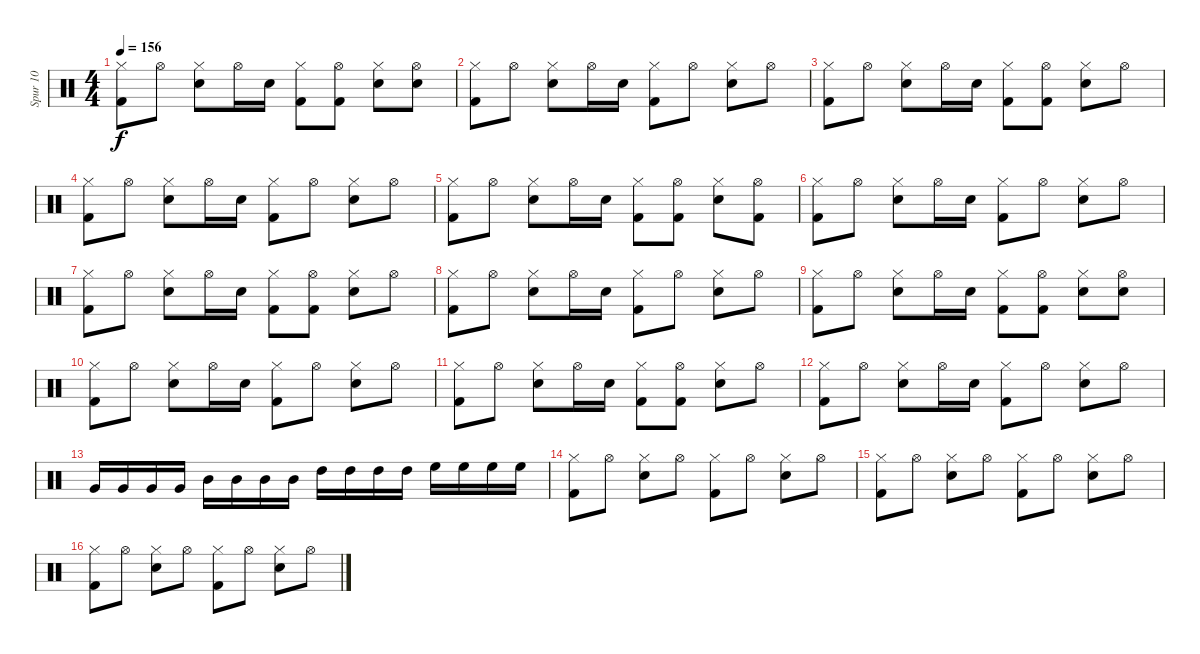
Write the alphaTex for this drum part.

\track ("Spur 10" "Spur 10") {instrument percussion}
\staff {score}
\articulation defaults
\ts (4 4)
\tempo 156
\clef neutral
\ks c
("Hi-Hat (closed)" "Kick (hit) 2").8{dy f} "Hi-Hat (open)".8 ("Hi-Hat (closed)" "Electric Snare (hit)").8 "Hi-Hat (open)".16 "Electric Snare (hit)".16 ("Hi-Hat (closed)" "Kick (hit) 2").8 ("Hi-Hat (open)" "Kick (hit) 2").8 ("Hi-Hat (closed)" "Electric Snare (hit)").8 ("Hi-Hat (open)" "Electric Snare (hit)").8 |
("Hi-Hat (closed)" "Kick (hit) 2").8 "Hi-Hat (open)".8 ("Hi-Hat (closed)" "Electric Snare (hit)").8 "Hi-Hat (open)".16 "Electric Snare (hit)".16 ("Hi-Hat (closed)" "Kick (hit) 2").8 "Hi-Hat (open)".8 ("Hi-Hat (closed)" "Electric Snare (hit)").8 "Hi-Hat (open)".8 |
("Hi-Hat (closed)" "Kick (hit) 2").8 "Hi-Hat (open)".8 ("Hi-Hat (closed)" "Electric Snare (hit)").8 "Hi-Hat (open)".16 "Electric Snare (hit)".16 ("Hi-Hat (closed)" "Kick (hit) 2").8 ("Hi-Hat (open)" "Kick (hit) 2").8 ("Hi-Hat (closed)" "Electric Snare (hit)").8 "Hi-Hat (open)".8 |
("Hi-Hat (closed)" "Kick (hit) 2").8 "Hi-Hat (open)".8 ("Hi-Hat (closed)" "Electric Snare (hit)").8 "Hi-Hat (open)".16 "Electric Snare (hit)".16 ("Hi-Hat (closed)" "Kick (hit) 2").8 "Hi-Hat (open)".8 ("Hi-Hat (closed)" "Electric Snare (hit)").8 "Hi-Hat (open)".8 |
("Hi-Hat (closed)" "Kick (hit) 2").8 "Hi-Hat (open)".8 ("Hi-Hat (closed)" "Electric Snare (hit)").8 "Hi-Hat (open)".16 "Electric Snare (hit)".16 ("Hi-Hat (closed)" "Kick (hit) 2").8 ("Hi-Hat (open)" "Kick (hit) 2").8 ("Hi-Hat (closed)" "Electric Snare (hit)").8 ("Hi-Hat (open)" "Kick (hit) 2").8 |
("Hi-Hat (closed)" "Kick (hit) 2").8 "Hi-Hat (open)".8 ("Hi-Hat (closed)" "Electric Snare (hit)").8 "Hi-Hat (open)".16 "Electric Snare (hit)".16 ("Hi-Hat (closed)" "Kick (hit) 2").8 "Hi-Hat (open)".8 ("Hi-Hat (closed)" "Electric Snare (hit)").8 "Hi-Hat (open)".8 |
("Hi-Hat (closed)" "Kick (hit) 2").8 "Hi-Hat (open)".8 ("Hi-Hat (closed)" "Electric Snare (hit)").8 "Hi-Hat (open)".16 "Electric Snare (hit)".16 ("Hi-Hat (closed)" "Kick (hit) 2").8 ("Hi-Hat (open)" "Kick (hit) 2").8 ("Hi-Hat (closed)" "Electric Snare (hit)").8 "Hi-Hat (open)".8 |
("Hi-Hat (closed)" "Kick (hit) 2").8 "Hi-Hat (open)".8 ("Hi-Hat (closed)" "Electric Snare (hit)").8 "Hi-Hat (open)".16 "Electric Snare (hit)".16 ("Hi-Hat (closed)" "Kick (hit) 2").8 "Hi-Hat (open)".8 ("Hi-Hat (closed)" "Electric Snare (hit)").8 "Hi-Hat (open)".8 |
("Hi-Hat (closed)" "Kick (hit) 2").8 "Hi-Hat (open)".8 ("Hi-Hat (closed)" "Electric Snare (hit)").8 "Hi-Hat (open)".16 "Electric Snare (hit)".16 ("Hi-Hat (closed)" "Kick (hit) 2").8 ("Hi-Hat (open)" "Kick (hit) 2").8 ("Hi-Hat (closed)" "Electric Snare (hit)").8 ("Hi-Hat (open)" "Electric Snare (hit)").8 |
("Hi-Hat (closed)" "Kick (hit) 2").8 "Hi-Hat (open)".8 ("Hi-Hat (closed)" "Electric Snare (hit)").8 "Hi-Hat (open)".16 "Electric Snare (hit)".16 ("Hi-Hat (closed)" "Kick (hit) 2").8 "Hi-Hat (open)".8 ("Hi-Hat (closed)" "Electric Snare (hit)").8 "Hi-Hat (open)".8 |
("Hi-Hat (closed)" "Kick (hit) 2").8 "Hi-Hat (open)".8 ("Hi-Hat (closed)" "Electric Snare (hit)").8 "Hi-Hat (open)".16 "Electric Snare (hit)".16 ("Hi-Hat (closed)" "Kick (hit) 2").8 ("Hi-Hat (open)" "Kick (hit) 2").8 ("Hi-Hat (closed)" "Electric Snare (hit)").8 "Hi-Hat (open)".8 |
("Hi-Hat (closed)" "Kick (hit) 2").8 "Hi-Hat (open)".8 ("Hi-Hat (closed)" "Electric Snare (hit)").8 "Hi-Hat (open)".16 "Electric Snare (hit)".16 ("Hi-Hat (closed)" "Kick (hit) 2").8 "Hi-Hat (open)".8 ("Hi-Hat (closed)" "Electric Snare (hit)").8 "Hi-Hat (open)".8 |
"Very Low Tom (hit)".16 "Very Low Tom (hit)".16 "Very Low Tom (hit)".16 "Very Low Tom (hit)".16 "Mid Tom (hit)".16 "Mid Tom (hit)".16 "Mid Tom (hit)".16 "Mid Tom (hit)".16 "High Tom (hit)".16 "High Tom (hit)".16 "High Tom (hit)".16 "High Tom (hit)".16 "High Floor Tom (hit)".16 "High Floor Tom (hit)".16 "High Floor Tom (hit)".16 "High Floor Tom (hit)".16 |
("Hi-Hat (closed)" "Kick (hit) 2").8 "Hi-Hat (open)".8 ("Hi-Hat (closed)" "Electric Snare (hit)").8 "Hi-Hat (open)".8 ("Hi-Hat (closed)" "Kick (hit) 2").8 "Hi-Hat (open)".8 ("Hi-Hat (closed)" "Electric Snare (hit)").8 "Hi-Hat (open)".8 |
("Hi-Hat (closed)" "Kick (hit) 2").8 "Hi-Hat (open)".8 ("Hi-Hat (closed)" "Electric Snare (hit)").8 "Hi-Hat (open)".8 ("Hi-Hat (closed)" "Kick (hit) 2").8 "Hi-Hat (open)".8 ("Hi-Hat (closed)" "Electric Snare (hit)").8 "Hi-Hat (open)".8 |
("Hi-Hat (closed)" "Kick (hit) 2").8 "Hi-Hat (open)".8 ("Hi-Hat (closed)" "Electric Snare (hit)").8 "Hi-Hat (open)".8 ("Hi-Hat (closed)" "Kick (hit) 2").8 "Hi-Hat (open)".8 ("Hi-Hat (closed)" "Electric Snare (hit)").8 "Hi-Hat (open)".8
